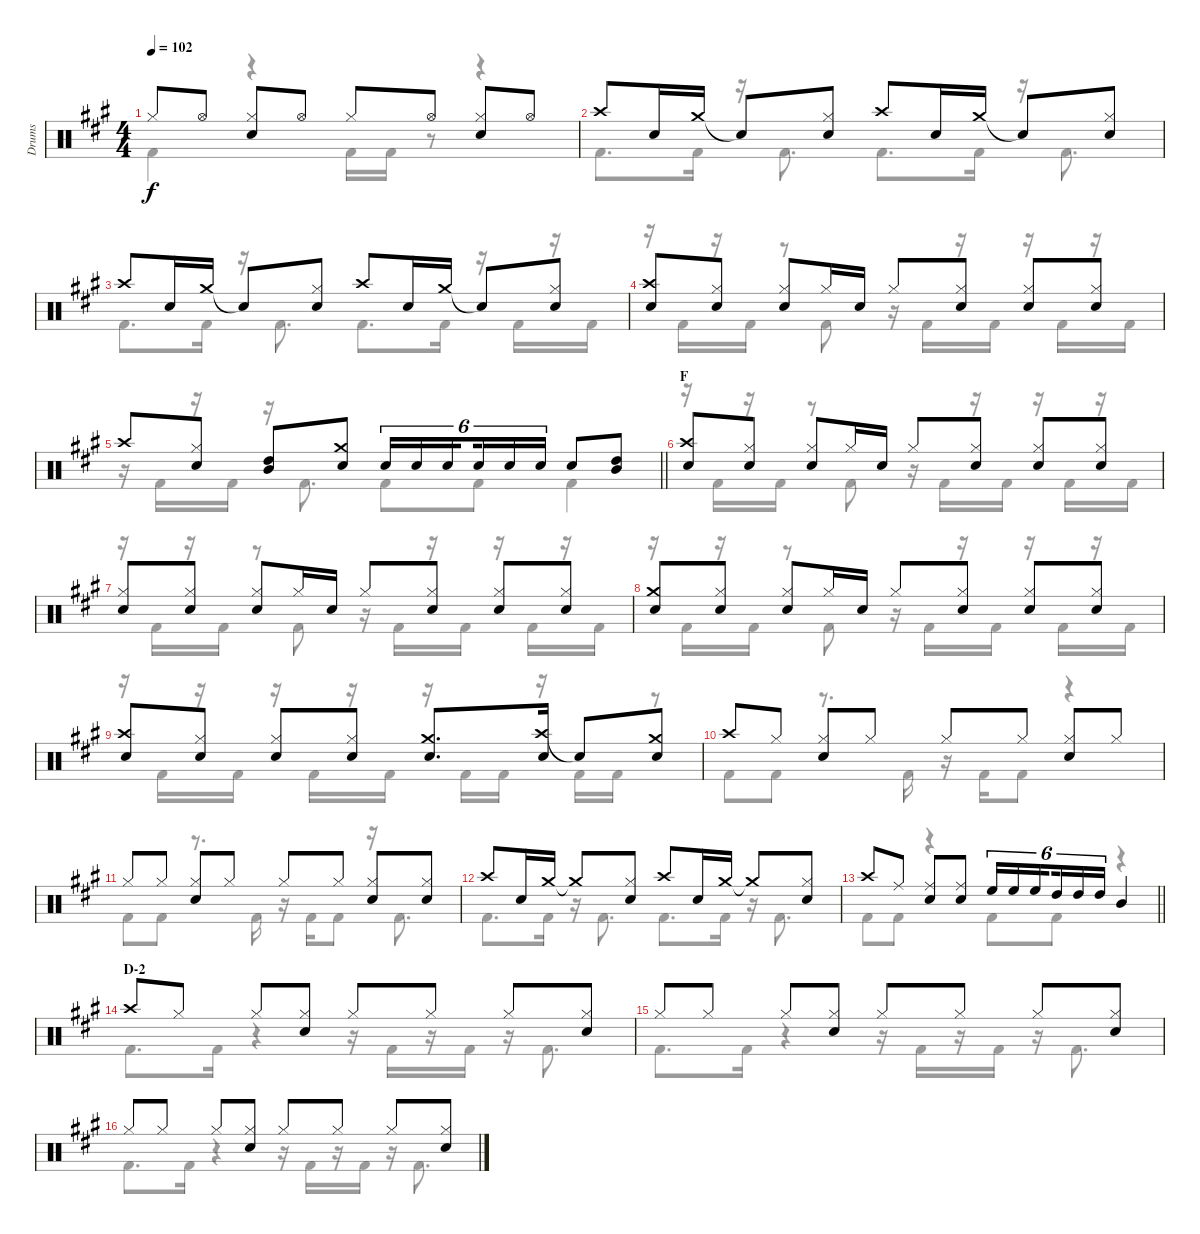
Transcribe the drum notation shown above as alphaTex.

\track ("Drums" "Drums") {instrument percussion}
\staff {score}
\articulation defaults
\voice
\ts (4 4)
\tempo 102
\clef neutral
\ks a "Hi-Hat (closed)".8{dy f} "Hi-Hat (open)".8
("Hi-Hat (closed)" "Snare (hit) 2").8 "Hi-Hat (open)".8 "Hi-Hat (closed)".8 "Hi-Hat (open)".8 ("Hi-Hat (closed)" "Snare (hit) 2").8 "Hi-Hat (open)".8 |
"Crash high (hit)".8 "Snare (hit) 2".16 "Crash medium (hit)".16 "Snare (hit)"{t}.8 ("Hi-Hat (closed)" "Snare (hit) 2").8 "Crash high (hit)".8 "Snare (hit) 2".16 "Crash medium (hit)".16 "Snare (hit)"{t}.8 ("Hi-Hat (closed)" "Snare (hit) 2").8 |
"Crash high (hit)".8 "Snare (hit) 2".16 "Crash medium (hit)".16 "Snare (hit)"{t}.8 ("Hi-Hat (closed)" "Snare (hit) 2").8 "Crash high (hit)".8 "Snare (hit) 2".16 "Crash medium (hit)".16 "Snare (hit)"{t}.8 ("Hi-Hat (closed)" "Snare (hit) 2").8 |
("Crash high (hit)" "Snare (hit) 2").8 ("Hi-Hat (closed)" "Snare (hit) 2").8 ("Hi-Hat (closed)" "Snare (hit) 2").8 "Hi-Hat (closed)".16 "Snare (hit) 2".16 "Hi-Hat (closed)".8 ("Hi-Hat (closed)" "Snare (hit) 2").8 ("Hi-Hat (closed)" "Snare (hit) 2").8 ("Hi-Hat (closed)" "Snare (hit) 2").8 |
\barLineRight lightlight "Crash high (hit)".8
("Hi-Hat (closed)" "Snare (hit) 2").8 ("High Tom (hit)" "Mid Tom (hit)").8 ("Crash medium (hit)" "Snare (hit) 2").8 "Snare (hit) 2".16{tu (6 4)} "Snare (hit) 2".16{tu (6 4)} "Snare (hit) 2".16{tu (6 4) beam splitsecondary} "Snare (hit) 2".16{tu (6 4)} "Snare (hit) 2".16{tu (6 4)} "Snare (hit) 2".16{tu (6 4)} "Snare (hit) 2".8 ("High Tom (hit)" "Mid Tom (hit)").8 |
\section ("" "F")
("Crash high (hit)" "Snare (hit) 2").8 ("Hi-Hat (closed)" "Snare (hit) 2").8 ("Hi-Hat (closed)" "Snare (hit) 2").8 "Hi-Hat (closed)".16 "Snare (hit) 2".16 "Hi-Hat (closed)".8 ("Hi-Hat (closed)" "Snare (hit) 2").8 ("Hi-Hat (closed)" "Snare (hit) 2").8 ("Hi-Hat (closed)" "Snare (hit) 2").8 |
("Hi-Hat (closed)" "Snare (hit) 2").8 ("Hi-Hat (closed)" "Snare (hit) 2").8 ("Hi-Hat (closed)" "Snare (hit) 2").8 "Hi-Hat (closed)".16 "Snare (hit) 2".16 "Hi-Hat (closed)".8 ("Hi-Hat (closed)" "Snare (hit) 2").8 ("Hi-Hat (closed)" "Snare (hit) 2").8 ("Hi-Hat (closed)" "Snare (hit) 2").8 |
("Crash medium (hit)" "Snare (hit) 2").8 ("Hi-Hat (closed)" "Snare (hit) 2").8 ("Hi-Hat (closed)" "Snare (hit) 2").8 "Hi-Hat (closed)".16 "Snare (hit) 2".16 "Hi-Hat (closed)".8 ("Hi-Hat (closed)" "Snare (hit) 2").8 ("Hi-Hat (closed)" "Snare (hit) 2").8 ("Hi-Hat (closed)" "Snare (hit) 2").8 |
("Crash high (hit)" "Snare (hit) 2").8 ("Hi-Hat (closed)" "Snare (hit) 2").8 ("Hi-Hat (closed)" "Snare (hit) 2").8 ("Hi-Hat (closed)" "Snare (hit) 2").8 ("Crash medium (hit)" "Snare (hit) 2").8{d} ("Crash high (hit)" "Snare (hit) 2").16 "Snare (hit)"{t}.8 ("Crash medium (hit)" "Snare (hit) 2").8 |
"Crash high (hit)".8 "Hi-Hat (closed)".8 ("Hi-Hat (closed)" "Snare (hit) 2").8 "Hi-Hat (closed)".8 "Hi-Hat (closed)".8 "Hi-Hat (closed)".8 ("Hi-Hat (closed)" "Snare (hit) 2").8 "Hi-Hat (closed)".8 |
"Hi-Hat (closed)".8 "Hi-Hat (closed)".8 ("Hi-Hat (closed)" "Snare (hit) 2").8 "Hi-Hat (closed)".8 "Hi-Hat (closed)".8 "Hi-Hat (closed)".8 ("Hi-Hat (closed)" "Snare (hit) 2").8 ("Hi-Hat (closed)" "Snare (hit) 2").8 |
"Crash high (hit)".8 "Snare (hit) 2".16 "Crash medium (hit)".16 "Crash medium (hit)"{t}.8 ("Hi-Hat (closed)" "Snare (hit) 2").8 "Crash high (hit)".8 "Snare (hit) 2".16 "Crash medium (hit)".16 "Crash medium (hit)"{t}.8 ("Hi-Hat (closed)" "Snare (hit) 2").8 |
\barLineRight lightlight "Crash high (hit)".8 "Ride (middle)".8
("Ride (middle)" "Snare (hit) 2").8 ("Ride (middle)" "Snare (hit) 2").8 "High Floor Tom (hit)".16{tu (6 4)} "High Floor Tom (hit)".16{tu (6 4)} "High Floor Tom (hit)".16{tu (6 4) beam splitsecondary} "High Tom (hit)".16{tu (6 4)} "High Tom (hit)".16{tu (6 4)} "High Tom (hit)".16{tu (6 4)} "Mid Tom (hit)".4 |
\section ("" "D-2")
"Crash high (hit)".8 "Hi-Hat (closed)".8 "Hi-Hat (closed)".8 ("Hi-Hat (closed)" "Snare (hit) 2").8 "Hi-Hat (closed)".8 "Hi-Hat (closed)".8 "Hi-Hat (closed)".8 ("Hi-Hat (closed)" "Snare (hit) 2").8 |
"Hi-Hat (closed)".8 "Hi-Hat (closed)".8 "Hi-Hat (closed)".8 ("Hi-Hat (closed)" "Snare (hit) 2").8 "Hi-Hat (closed)".8 "Hi-Hat (closed)".8 "Hi-Hat (closed)".8 ("Hi-Hat (closed)" "Snare (hit) 2").8 |
"Hi-Hat (closed)".8 "Hi-Hat (closed)".8 "Hi-Hat (closed)".8 ("Hi-Hat (closed)" "Snare (hit) 2").8 "Hi-Hat (closed)".8 "Hi-Hat (closed)".8 "Hi-Hat (closed)".8 ("Hi-Hat (closed)" "Snare (hit) 2").8
\voice
\clef neutral
\ottava regular
\simile none
\ks a "Kick (hit) 2".4{dy f}
r.4 "Kick (hit) 2".16 "Kick (hit) 2".16 r.8 r.4 |
"Kick (hit) 2".8{d} "Kick (hit) 2".16 r.16 "Kick (hit) 2".8{d} "Kick (hit) 2".8{d} "Kick (hit) 2".16 r.16 "Kick (hit) 2".8{d} |
"Kick (hit) 2".8{d} "Kick (hit) 2".16 r.16 "Kick (hit) 2".8{d} "Kick (hit) 2".8{d} "Kick (hit) 2".16 r.16 "Kick (hit) 2".16 r.16 "Kick (hit) 2".16 |
r.16 "Kick (hit) 2".16 r.16 "Kick (hit) 2".16 r.8 "Kick (hit) 2".8 r.16 "Kick (hit) 2".16 r.16 "Kick (hit) 2".16 r.16 "Kick (hit) 2".16 r.16 "Kick (hit) 2".16 |
\barLineRight lightlight
r.16 "Kick (hit) 2".16 r.16 "Kick (hit) 2".16 r.16 "Kick (hit) 2".8{d} "Kick (hit) 2".8 "Kick (hit) 2".8 "Kick (hit) 2".4 |
r.16 "Kick (hit) 2".16 r.16 "Kick (hit) 2".16 r.8 "Kick (hit) 2".8 r.16 "Kick (hit) 2".16 r.16 "Kick (hit) 2".16 r.16 "Kick (hit) 2".16 r.16 "Kick (hit) 2".16 |
r.16 "Kick (hit) 2".16 r.16 "Kick (hit) 2".16 r.8 "Kick (hit) 2".8 r.16 "Kick (hit) 2".16 r.16 "Kick (hit) 2".16 r.16 "Kick (hit) 2".16 r.16 "Kick (hit) 2".16 |
r.16 "Kick (hit) 2".16 r.16 "Kick (hit) 2".16 r.8 "Kick (hit) 2".8 r.16 "Kick (hit) 2".16 r.16 "Kick (hit) 2".16 r.16 "Kick (hit) 2".16 r.16 "Kick (hit) 2".16 |
r.16 "Kick (hit) 2".16 r.16 "Kick (hit) 2".16 r.16 "Kick (hit) 2".16 r.16 "Kick (hit) 2".16 r.16 "Kick (hit) 2".16 "Kick (hit) 2".16 r.16 "Kick (hit) 2".16 "Kick (hit) 2".16 r.8 |
"Kick (hit) 2".8 "Kick (hit) 2".8 r.8{d} "Kick (hit) 2".16 r.16 "Kick (hit) 2".16 "Kick (hit) 2".8 r.4 |
"Kick (hit) 2".8 "Kick (hit) 2".8 r.8{d} "Kick (hit) 2".16 r.16 "Kick (hit) 2".16 "Kick (hit) 2".8 r.16 "Kick (hit) 2".8{d} |
"Kick (hit) 2".8{d} "Kick (hit) 2".16 r.16 "Kick (hit) 2".8{d} "Kick (hit) 2".8{d} "Kick (hit) 2".16 r.16 "Kick (hit) 2".8{d} |
\barLineRight lightlight "Kick (hit) 2".8 "Kick (hit) 2".8
r.4 "Kick (hit) 2".8 "Kick (hit) 2".8 r.4 |
"Kick (hit) 2".8{d} "Kick (hit) 2".16 r.4 r.16 "Kick (hit) 2".16 r.16 "Kick (hit) 2".16 r.16 "Kick (hit) 2".8{d} |
"Kick (hit) 2".8{d} "Kick (hit) 2".16 r.4 r.16 "Kick (hit) 2".16 r.16 "Kick (hit) 2".16 r.16 "Kick (hit) 2".8{d} |
"Kick (hit) 2".8{d} "Kick (hit) 2".16 r.4 r.16 "Kick (hit) 2".16 r.16 "Kick (hit) 2".16 r.16 "Kick (hit) 2".8{d}
